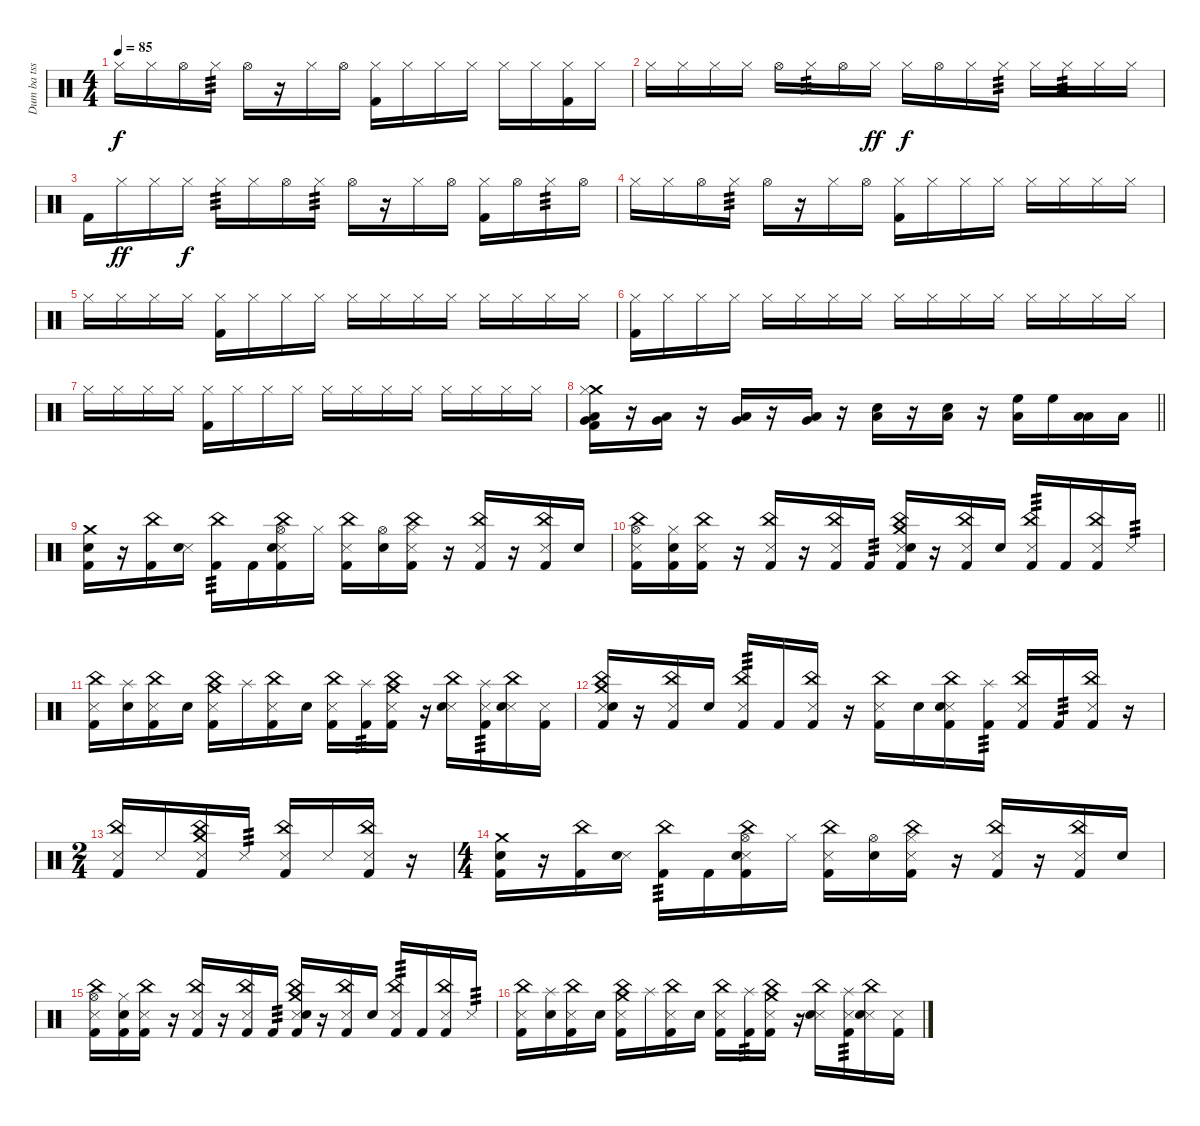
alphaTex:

\track ("Dum ba tss" "Dum ba tss") {instrument percussion}
\staff {score}
\articulation defaults
\ts (4 4)
\tempo 85
\clef neutral
\ks c "Hi-Hat (closed)".16{dy f} "Hi-Hat (closed)".16 "Hi-Hat (open)".16 "Hi-Hat (closed)".16{tp 3} "Hi-Hat (open)".16
r.16 "Hi-Hat (closed)".16 "Hi-Hat (open)".16 ("Hi-Hat (closed)" "Kick (hit) 2").16 "Hi-Hat (closed)".16 "Hi-Hat (closed)".16 "Hi-Hat (closed)".16 "Hi-Hat (closed)".16 "Hi-Hat (closed)".16 ("Hi-Hat (closed)" "Kick (hit) 2").16 "Hi-Hat (closed)".16 |
"Hi-Hat (closed)".16 "Hi-Hat (closed)".16 "Hi-Hat (closed)".16 "Hi-Hat (closed)".16 "Hi-Hat (open)".16 "Hi-Hat (closed)".16{tp 3} "Hi-Hat (open)".16 "Hi-Hat (closed)".16{dy ff} "Hi-Hat (closed)".16{dy f} "Hi-Hat (open)".16 "Hi-Hat (closed)".16 "Hi-Hat (closed)".16{tp 3} "Hi-Hat (closed)".16 "Hi-Hat (closed)".16{tp 3} "Hi-Hat (closed)".16 "Hi-Hat (closed)".16 |
"Kick (hit) 2".16 "Hi-Hat (closed)".16{dy ff} "Hi-Hat (closed)".16 "Hi-Hat (closed)".16{dy f} "Hi-Hat (closed)".16{tp 3} "Hi-Hat (closed)".16 "Hi-Hat (open)".16 "Hi-Hat (closed)".16{tp 3} "Hi-Hat (open)".16 r.16 "Hi-Hat (closed)".16 "Hi-Hat (open)".16 ("Hi-Hat (closed)" "Kick (hit) 2").16 "Hi-Hat (open)".16 "Hi-Hat (closed)".16{tp 3} "Hi-Hat (open)".16 |
"Hi-Hat (closed)".16 "Hi-Hat (closed)".16 "Hi-Hat (open)".16 "Hi-Hat (closed)".16{tp 3} "Hi-Hat (open)".16 r.16 "Hi-Hat (closed)".16 "Hi-Hat (open)".16 ("Hi-Hat (closed)" "Kick (hit) 2").16 "Hi-Hat (closed)".16 "Hi-Hat (closed)".16 "Hi-Hat (closed)".16 "Hi-Hat (closed)".16 "Hi-Hat (closed)".16 "Hi-Hat (closed)".16 "Hi-Hat (closed)".16 |
"Hi-Hat (closed)".16 "Hi-Hat (closed)".16 "Hi-Hat (closed)".16 "Hi-Hat (closed)".16 ("Hi-Hat (closed)" "Kick (hit) 2").16 "Hi-Hat (closed)".16 "Hi-Hat (closed)".16 "Hi-Hat (closed)".16 "Hi-Hat (closed)".16 "Hi-Hat (closed)".16 "Hi-Hat (closed)".16 "Hi-Hat (closed)".16 "Hi-Hat (closed)".16 "Hi-Hat (closed)".16 "Hi-Hat (closed)".16 "Hi-Hat (closed)".16 |
("Hi-Hat (closed)" "Kick (hit) 2").16 "Hi-Hat (closed)".16 "Hi-Hat (closed)".16 "Hi-Hat (closed)".16 "Hi-Hat (closed)".16 "Hi-Hat (closed)".16 "Hi-Hat (closed)".16 "Hi-Hat (closed)".16 "Hi-Hat (closed)".16 "Hi-Hat (closed)".16 "Hi-Hat (closed)".16 "Hi-Hat (closed)".16 "Hi-Hat (closed)".16 "Hi-Hat (closed)".16 "Hi-Hat (closed)".16 "Hi-Hat (closed)".16 |
"Hi-Hat (closed)".16 "Hi-Hat (closed)".16 "Hi-Hat (closed)".16 "Hi-Hat (closed)".16 ("Hi-Hat (closed)" "Kick (hit) 2").16 "Hi-Hat (closed)".16 "Hi-Hat (closed)".16 "Hi-Hat (closed)".16 "Hi-Hat (closed)".16 "Hi-Hat (closed)".16 "Hi-Hat (closed)".16 "Hi-Hat (closed)".16 "Hi-Hat (closed)".16 "Hi-Hat (closed)".16 "Hi-Hat (closed)".16 "Hi-Hat (closed)".16 |
\barLineRight lightlight
("Crash medium (hit)" "Hi-Hat (closed)" "Low Tom (hit)" "Very Low Tom (hit)" "Kick (hit) 2").16 r.16 ("Very Low Tom (hit)" "Low Tom (hit)").16 r.16 ("Very Low Tom (hit)" "Low Tom (hit)").16 r.16 ("Very Low Tom (hit)" "Low Tom (hit)").16 r.16 ("Electric Snare (hit)" "Low Tom (hit)").16 r.16 ("Electric Snare (hit)" "Low Tom (hit)").16 r.16 ("High Floor Tom (hit)" "Low Tom (hit)").16 "High Floor Tom (hit)".16 ("Low Tom (hit)" "Low Tom (hit)").16 "Low Tom (hit)".16 |
("Crash medium (hit)" "Electric Snare (hit)" "Kick (hit) 2").16 r.16 ("China (hit)" "Kick (hit) 2").16 ("Snare (side stick) 3" "Electric Snare (hit)").16 ("China (hit)" "Kick (hit) 2").16{tp 3} "Kick (hit) 2".16 ("Hi-Hat (open)" "China (hit)" "Snare (side stick) 3" "Electric Snare (hit)" "Kick (hit) 2").16 "Hi-Hat (closed)".16 ("China (hit)" "Snare (side stick) 3" "Kick (hit) 2").16 ("Hi-Hat (open)" "Electric Snare (hit)").16 ("Hi-Hat (closed)" "China (hit)" "Snare (side stick) 3" "Kick (hit) 2").16 r.16 ("China (hit)" "Snare (side stick) 3" "Kick (hit) 2").16 r.16 ("China (hit)" "Snare (side stick) 3" "Kick (hit) 2").16 "Electric Snare (hit)".16 |
("China (hit)" "Hi-Hat (open)" "Snare (side stick) 3" "Kick (hit) 2").16 ("Hi-Hat (closed)" "Electric Snare (hit)" "Kick (hit) 2").16 ("China (hit)" "Snare (side stick) 3" "Kick (hit) 2").16 r.16 ("China (hit)" "Snare (side stick) 3" "Kick (hit) 2").16 r.16 ("China (hit)" "Snare (side stick) 3" "Kick (hit) 2").16 "Kick (hit) 2".16{tp 3} ("Crash medium (hit)" "China (hit)" "Snare (side stick) 3" "Electric Snare (hit)" "Kick (hit) 2").16 r.16 ("China (hit)" "Snare (side stick) 3" "Kick (hit) 2").16 "Electric Snare (hit)".16 ("China (hit)" "Snare (side stick) 3" "Kick (hit) 2").16{tp 3} "Kick (hit) 2".16 ("China (hit)" "Snare (side stick) 3" "Kick (hit) 2").16 "Snare (side stick) 3".16{tp 3} |
("China (hit)" "Snare (side stick) 3" "Kick (hit) 2").16 ("Splash (hit)" "Electric Snare (hit)").16 ("China (hit)" "Snare (side stick) 3" "Kick (hit) 2").16 "Electric Snare (hit)".16 ("Crash medium (hit)" "China (hit)" "Snare (side stick) 3" "Kick (hit) 2").16 "Splash (hit)".16 ("China (hit)" "Snare (side stick) 3" "Kick (hit) 2").16 "Electric Snare (hit)".16 ("China (hit)" "Snare (side stick) 3" "Kick (hit) 2").16 ("Splash (hit)" "Kick (hit) 2").16{tp 3} ("Crash medium (hit)" "China (hit)" "Snare (side stick) 3" "Kick (hit) 2").16 r.16 ("China (hit)" "Snare (side stick) 3" "Electric Snare (hit)").16 ("Splash (hit)" "Snare (side stick) 3" "Kick (hit) 2").16{tp 3} ("China (hit)" "Snare (side stick) 3" "Electric Snare (hit)").16 ("Snare (side stick) 3" "Kick (hit) 2").16 |
("Snare (side stick) 3" "China (hit)" "Crash medium (hit)" "Electric Snare (hit)" "Kick (hit) 2").16 r.16 ("Snare (side stick) 3" "China (hit)" "Kick (hit) 2").16 "Electric Snare (hit)".16 ("Snare (side stick) 3" "China (hit)" "Kick (hit) 2").16{tp 3} "Kick (hit) 2".16 ("Snare (side stick) 3" "China (hit)" "Kick (hit) 2").16 r.16 ("Snare (side stick) 3" "China (hit)" "Kick (hit) 2").16 "Electric Snare (hit)".16 ("Snare (side stick) 3" "China (hit)" "Electric Snare (hit)" "Kick (hit) 2").16 ("Splash (hit)" "Kick (hit) 2").16{tp 3} ("Snare (side stick) 3" "China (hit)" "Kick (hit) 2").16 "Kick (hit) 2".16{tp 3} ("Snare (side stick) 3" "China (hit)" "Kick (hit) 2").16 r.16 |
\ts (2 4)
("Snare (side stick) 3" "China (hit)" "Kick (hit) 2").16 "Snare (side stick) 3".16 ("Snare (side stick) 3" "China (hit)" "Crash medium (hit)" "Kick (hit) 2").16 "Snare (side stick) 3".16{tp 3} ("Snare (side stick) 3" "China (hit)" "Kick (hit) 2").16 "Snare (side stick) 3".16 ("Snare (side stick) 3" "China (hit)" "Kick (hit) 2").16 r.16 |
\ts (4 4)
("Crash medium (hit)" "Electric Snare (hit)" "Kick (hit) 2").16 r.16 ("China (hit)" "Kick (hit) 2").16 ("Snare (side stick) 3" "Electric Snare (hit)").16 ("China (hit)" "Kick (hit) 2").16{tp 3} "Kick (hit) 2".16 ("Hi-Hat (open)" "China (hit)" "Snare (side stick) 3" "Electric Snare (hit)" "Kick (hit) 2").16 "Hi-Hat (closed)".16 ("China (hit)" "Snare (side stick) 3" "Kick (hit) 2").16 ("Hi-Hat (open)" "Electric Snare (hit)").16 ("Hi-Hat (closed)" "China (hit)" "Snare (side stick) 3" "Kick (hit) 2").16 r.16 ("China (hit)" "Snare (side stick) 3" "Kick (hit) 2").16 r.16 ("China (hit)" "Snare (side stick) 3" "Kick (hit) 2").16 "Electric Snare (hit)".16 |
("China (hit)" "Hi-Hat (open)" "Snare (side stick) 3" "Kick (hit) 2").16 ("Hi-Hat (closed)" "Electric Snare (hit)" "Kick (hit) 2").16 ("China (hit)" "Snare (side stick) 3" "Kick (hit) 2").16 r.16 ("China (hit)" "Snare (side stick) 3" "Kick (hit) 2").16 r.16 ("China (hit)" "Snare (side stick) 3" "Kick (hit) 2").16 "Kick (hit) 2".16{tp 3} ("Crash medium (hit)" "China (hit)" "Snare (side stick) 3" "Electric Snare (hit)" "Kick (hit) 2").16 r.16 ("China (hit)" "Snare (side stick) 3" "Kick (hit) 2").16 "Electric Snare (hit)".16 ("China (hit)" "Snare (side stick) 3" "Kick (hit) 2").16{tp 3} "Kick (hit) 2".16 ("China (hit)" "Snare (side stick) 3" "Kick (hit) 2").16 "Snare (side stick) 3".16{tp 3} |
("China (hit)" "Snare (side stick) 3" "Kick (hit) 2").16 ("Splash (hit)" "Electric Snare (hit)").16 ("China (hit)" "Snare (side stick) 3" "Kick (hit) 2").16 "Electric Snare (hit)".16 ("Crash medium (hit)" "China (hit)" "Snare (side stick) 3" "Kick (hit) 2").16 "Splash (hit)".16 ("China (hit)" "Snare (side stick) 3" "Kick (hit) 2").16 "Electric Snare (hit)".16 ("China (hit)" "Snare (side stick) 3" "Kick (hit) 2").16 ("Splash (hit)" "Kick (hit) 2").16{tp 3} ("Crash medium (hit)" "China (hit)" "Snare (side stick) 3" "Kick (hit) 2").16 r.16 ("China (hit)" "Snare (side stick) 3" "Electric Snare (hit)").16 ("Splash (hit)" "Snare (side stick) 3" "Kick (hit) 2").16{tp 3} ("China (hit)" "Snare (side stick) 3" "Electric Snare (hit)").16 ("Snare (side stick) 3" "Kick (hit) 2").16
